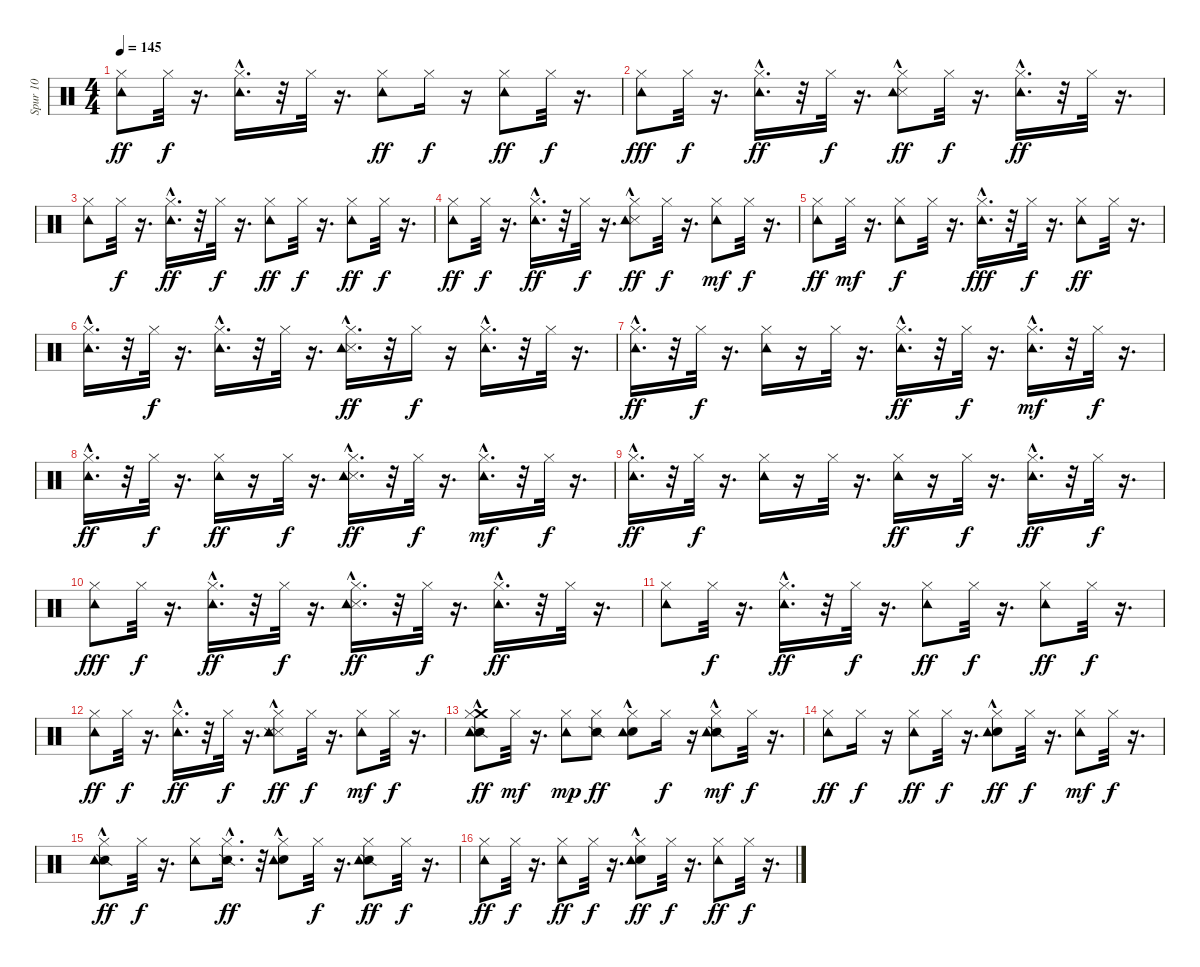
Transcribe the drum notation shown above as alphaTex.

\track ("Spur 10" "Spur 10") {instrument percussion}
\staff {score}
\articulation defaults
\ts (4 4)
\tempo 145
\clef neutral
\ks c
("Tambourine (hit)" "Hi-Hat (closed)").8{dy ff} "Hi-Hat (closed)".32{dy f} r.16{d} ("Tambourine (hit)"{hac} "Hi-Hat (closed)").16{d} r.32 "Hi-Hat (closed)".32 r.16{d} ("Tambourine (hit)" "Hi-Hat (closed)").8{dy ff} "Hi-Hat (closed)".16{dy f} r.16 ("Tambourine (hit)" "Hi-Hat (closed)").8{dy ff} "Hi-Hat (closed)".32{dy f} r.16{d} |
("Tambourine (hit)" "Hi-Hat (closed)").8{dy fff} "Hi-Hat (closed)".32{dy f} r.16{d} ("Tambourine (hit)"{hac} "Hi-Hat (closed)").16{d dy ff} r.32 "Hi-Hat (closed)".32{dy f} r.16{d} ("Snare (side stick) 3" "Tambourine (hit)"{hac} "Hi-Hat (closed)").8{dy ff} "Hi-Hat (closed)".32{dy f} r.16{d} ("Tambourine (hit)"{hac} "Hi-Hat (closed)").16{d dy ff} r.32 "Hi-Hat (closed)".32 r.16{d} |
("Tambourine (hit)" "Hi-Hat (closed)").8 "Hi-Hat (closed)".32{dy f} r.16{d} ("Tambourine (hit)"{hac} "Hi-Hat (closed)").16{d dy ff} r.32 "Hi-Hat (closed)".32{dy f} r.16{d} ("Tambourine (hit)" "Hi-Hat (closed)").8{dy ff} "Hi-Hat (closed)".32{dy f} r.16{d} ("Tambourine (hit)" "Hi-Hat (closed)").8{dy ff} "Hi-Hat (closed)".32{dy f} r.16{d} |
("Tambourine (hit)" "Hi-Hat (closed)").8{dy ff} "Hi-Hat (closed)".32{dy f} r.16{d} ("Tambourine (hit)"{hac} "Hi-Hat (closed)").16{d dy ff} r.32 "Hi-Hat (closed)".32{dy f} r.16{d} ("Snare (side stick) 3" "Tambourine (hit)"{hac} "Hi-Hat (closed)").8{dy ff} "Hi-Hat (closed)".32{dy f} r.16{d} ("Tambourine (hit)" "Hi-Hat (closed)").8{dy mf} "Hi-Hat (closed)".32{dy f} r.16{d} |
("Tambourine (hit)" "Hi-Hat (closed)").8{dy ff} "Hi-Hat (closed)".32{dy mf} r.16{d} ("Tambourine (hit)" "Hi-Hat (closed)").8{dy f} "Hi-Hat (closed)".32 r.16{d} ("Tambourine (hit)"{hac} "Hi-Hat (closed)").16{d dy fff} r.32 "Hi-Hat (closed)".32{dy f} r.16{d} ("Tambourine (hit)" "Hi-Hat (closed)").8{dy ff} "Hi-Hat (closed)".32 r.16{d} |
("Tambourine (hit)"{hac} "Hi-Hat (closed)").16{d} r.32 "Hi-Hat (closed)".32{dy f} r.16{d} ("Tambourine (hit)"{hac} "Hi-Hat (closed)").16{d} r.32 "Hi-Hat (closed)".32 r.16{d} ("Snare (side stick) 3" "Tambourine (hit)"{hac} "Hi-Hat (closed)").16{d dy ff} r.32 "Hi-Hat (closed)".16{dy f} r.16 ("Tambourine (hit)"{hac} "Hi-Hat (closed)").16{d} r.32 "Hi-Hat (closed)".32 r.16{d} |
("Tambourine (hit)"{hac} "Hi-Hat (closed)").16{d dy ff} r.32 "Hi-Hat (closed)".32{dy f} r.16{d} ("Tambourine (hit)" "Hi-Hat (closed)").16 r.16 "Hi-Hat (closed)".32 r.16{d} ("Tambourine (hit)"{hac} "Hi-Hat (closed)").16{d dy ff} r.32 "Hi-Hat (closed)".32{dy f} r.16{d} ("Tambourine (hit)"{hac} "Hi-Hat (closed)").16{d dy mf} r.32 "Hi-Hat (closed)".32{dy f} r.16{d} |
("Tambourine (hit)"{hac} "Hi-Hat (closed)").16{d dy ff} r.32 "Hi-Hat (closed)".32{dy f} r.16{d} ("Tambourine (hit)" "Hi-Hat (closed)").16{dy ff} r.16 "Hi-Hat (closed)".32{dy f} r.16{d} ("Snare (side stick) 3"{hac} "Tambourine (hit)" "Hi-Hat (closed)").16{d dy ff} r.32 "Hi-Hat (closed)".32{dy f} r.16{d} ("Tambourine (hit)"{hac} "Hi-Hat (closed)").16{d dy mf} r.32 "Hi-Hat (closed)".32{dy f} r.16{d} |
("Tambourine (hit)"{hac} "Hi-Hat (closed)").16{d dy ff} r.32 "Hi-Hat (closed)".32{dy f} r.16{d} ("Tambourine (hit)" "Hi-Hat (closed)").16 r.16 "Hi-Hat (closed)".32 r.16{d} ("Tambourine (hit)" "Hi-Hat (closed)").16{dy ff} r.16 "Hi-Hat (closed)".32{dy f} r.16{d} ("Tambourine (hit)"{hac} "Hi-Hat (closed)").16{d dy ff} r.32 "Hi-Hat (closed)".32{dy f} r.16{d} |
("Tambourine (hit)" "Hi-Hat (closed)").8{dy fff} "Hi-Hat (closed)".32{dy f} r.16{d} ("Tambourine (hit)"{hac} "Hi-Hat (closed)").16{d dy ff} r.32 "Hi-Hat (closed)".32{dy f} r.16{d} ("Snare (side stick) 3"{hac} "Tambourine (hit)"{hac} "Hi-Hat (closed)").16{d dy ff} r.32 "Hi-Hat (closed)".32{dy f} r.16{d} ("Tambourine (hit)"{hac} "Hi-Hat (closed)").16{d dy ff} r.32 "Hi-Hat (closed)".32 r.16{d} |
("Tambourine (hit)" "Hi-Hat (closed)").8 "Hi-Hat (closed)".32{dy f} r.16{d} ("Tambourine (hit)"{hac} "Hi-Hat (closed)").16{d dy ff} r.32 "Hi-Hat (closed)".32{dy f} r.16{d} ("Tambourine (hit)" "Hi-Hat (closed)").8{dy ff} "Hi-Hat (closed)".32{dy f} r.16{d} ("Tambourine (hit)" "Hi-Hat (closed)").8{dy ff} "Hi-Hat (closed)".32{dy f} r.16{d} |
("Tambourine (hit)" "Hi-Hat (closed)").8{dy ff} "Hi-Hat (closed)".32{dy f} r.16{d} ("Tambourine (hit)"{hac} "Hi-Hat (closed)").16{d dy ff} r.32 "Hi-Hat (closed)".32{dy f} r.16{d} ("Snare (side stick) 3"{hac} "Snare (side stick) 3"{hac} "Tambourine (hit)"{hac} "Hi-Hat (closed)").8{dy ff} "Hi-Hat (closed)".32{dy f} r.16{d} ("Tambourine (hit)" "Hi-Hat (closed)").8{dy mf} "Hi-Hat (closed)".32{dy f} r.16{d} |
("Crash medium (hit)"{hac} "Snare (side stick) 2" "Tambourine (hit)" "Hi-Hat (closed)").8{dy ff} "Hi-Hat (closed)".32{dy mf} r.16{d} ("Tambourine (hit)" "Hi-Hat (closed)").8{dy mp} ("Snare (side stick) 2" "Hi-Hat (closed)").8{dy ff} ("Electric Snare (hit)"{hac} "Tambourine (hit)" "Hi-Hat (closed)").8 "Hi-Hat (closed)".16{dy f} r.16 ("Snare (side stick) 2"{hac} "Tambourine (hit)" "Hi-Hat (closed)").8{dy mf} "Hi-Hat (closed)".32{dy f} r.16{d} |
("Tambourine (hit)" "Hi-Hat (closed)").8{dy ff} "Hi-Hat (closed)".16{dy f} r.16 ("Hi-Hat (closed)" "Tambourine (hit)").8{dy ff} "Hi-Hat (closed)".32{dy f} r.16{d} ("Electric Snare (hit)"{hac} "Tambourine (hit)" "Hi-Hat (closed)").8{dy ff} "Hi-Hat (closed)".32{dy f} r.16{d} ("Tambourine (hit)" "Hi-Hat (closed)").8{dy mf} "Hi-Hat (closed)".32{dy f} r.16{d} |
("Snare (side stick) 2"{hac} "Tambourine (hit)" "Hi-Hat (closed)").8{dy ff} "Hi-Hat (closed)".32{dy f} r.16{d} ("Tambourine (hit)" "Hi-Hat (closed)").8 ("Snare (side stick) 2"{hac} "Hi-Hat (closed)").16{d dy ff} r.32 ("Electric Snare (hit)"{hac} "Tambourine (hit)" "Hi-Hat (closed)").8 "Hi-Hat (closed)".32{dy f} r.16{d} ("Snare (side stick) 2" "Tambourine (hit)" "Hi-Hat (closed)").8{dy ff} "Hi-Hat (closed)".32{dy f} r.16{d} |
("Tambourine (hit)" "Hi-Hat (closed)").8{dy ff} "Hi-Hat (closed)".32{dy f} r.16{d} ("Tambourine (hit)" "Hi-Hat (closed)").8{dy ff} "Hi-Hat (closed)".32{dy f} r.16{d} ("Electric Snare (hit)"{hac} "Tambourine (hit)" "Hi-Hat (closed)").8{dy ff} "Hi-Hat (closed)".32{dy f} r.16{d} ("Tambourine (hit)" "Hi-Hat (closed)").8{dy ff} "Hi-Hat (closed)".32{dy f} r.16{d}
